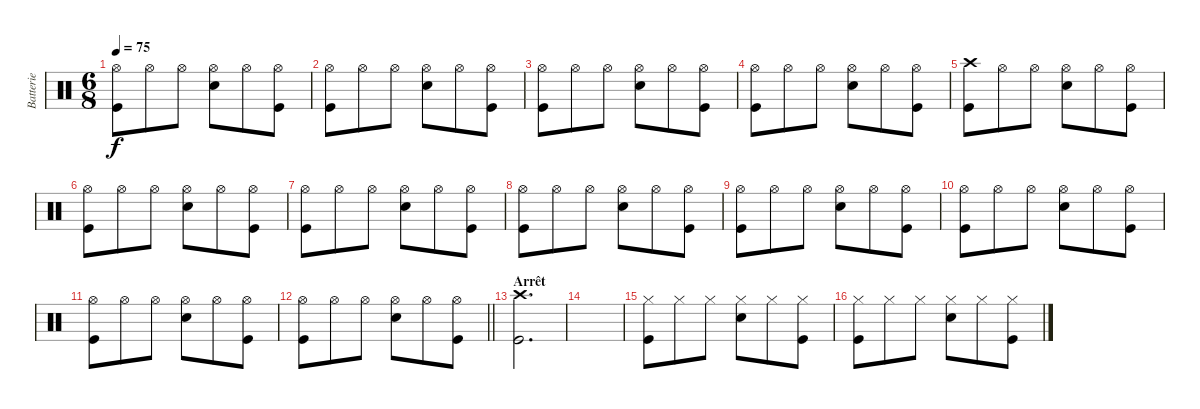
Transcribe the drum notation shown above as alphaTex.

\track ("Batterie" "Batterie") {instrument percussion}
\staff {score}
\articulation defaults
\ts (6 8)
\tempo 75
\clef neutral
\ks c
("Hi-Hat (open)" "Kick (hit)").8{dy f} "Hi-Hat (open)".8 "Hi-Hat (open)".8 ("Electric Snare (hit)" "Hi-Hat (open)").8 "Hi-Hat (open)".8 ("Kick (hit)" "Hi-Hat (open)").8 |
("Hi-Hat (open)" "Kick (hit)").8 "Hi-Hat (open)".8 "Hi-Hat (open)".8 ("Electric Snare (hit)" "Hi-Hat (open)").8 "Hi-Hat (open)".8 ("Kick (hit)" "Hi-Hat (open)").8 |
("Hi-Hat (open)" "Kick (hit)").8 "Hi-Hat (open)".8 "Hi-Hat (open)".8 ("Electric Snare (hit)" "Hi-Hat (open)").8 "Hi-Hat (open)".8 ("Kick (hit)" "Hi-Hat (open)").8 |
("Hi-Hat (open)" "Kick (hit)").8 "Hi-Hat (open)".8 "Hi-Hat (open)".8 ("Electric Snare (hit)" "Hi-Hat (open)").8 "Hi-Hat (open)".8 ("Kick (hit)" "Hi-Hat (open)").8 |
("Kick (hit)" "Crash high (hit)").8 "Hi-Hat (open)".8 "Hi-Hat (open)".8 ("Electric Snare (hit)" "Hi-Hat (open)").8 "Hi-Hat (open)".8 ("Kick (hit)" "Hi-Hat (open)").8 |
("Hi-Hat (open)" "Kick (hit)").8 "Hi-Hat (open)".8 "Hi-Hat (open)".8 ("Electric Snare (hit)" "Hi-Hat (open)").8 "Hi-Hat (open)".8 ("Kick (hit)" "Hi-Hat (open)").8 |
("Hi-Hat (open)" "Kick (hit)").8 "Hi-Hat (open)".8 "Hi-Hat (open)".8 ("Electric Snare (hit)" "Hi-Hat (open)").8 "Hi-Hat (open)".8 ("Kick (hit)" "Hi-Hat (open)").8 |
("Hi-Hat (open)" "Kick (hit)").8 "Hi-Hat (open)".8 "Hi-Hat (open)".8 ("Electric Snare (hit)" "Hi-Hat (open)").8 "Hi-Hat (open)".8 ("Kick (hit)" "Hi-Hat (open)").8 |
("Hi-Hat (open)" "Kick (hit)").8 "Hi-Hat (open)".8 "Hi-Hat (open)".8 ("Electric Snare (hit)" "Hi-Hat (open)").8 "Hi-Hat (open)".8 ("Kick (hit)" "Hi-Hat (open)").8 |
("Hi-Hat (open)" "Kick (hit)").8 "Hi-Hat (open)".8 "Hi-Hat (open)".8 ("Electric Snare (hit)" "Hi-Hat (open)").8 "Hi-Hat (open)".8 ("Kick (hit)" "Hi-Hat (open)").8 |
("Hi-Hat (open)" "Kick (hit)").8 "Hi-Hat (open)".8 "Hi-Hat (open)".8 ("Electric Snare (hit)" "Hi-Hat (open)").8 "Hi-Hat (open)".8 ("Kick (hit)" "Hi-Hat (open)").8 |
\barLineRight lightlight
("Hi-Hat (open)" "Kick (hit)").8 "Hi-Hat (open)".8 "Hi-Hat (open)".8 ("Electric Snare (hit)" "Hi-Hat (open)").8 "Hi-Hat (open)".8 ("Kick (hit)" "Hi-Hat (open)").8 |
\section ("" "Arrêt")
("Kick (hit)" "Crash high (hit)").2{d} |
|
("Hi-Hat (closed)" "Kick (hit)").8 "Hi-Hat (closed)".8 "Hi-Hat (closed)".8 ("Snare (hit) 2" "Hi-Hat (closed)").8 "Hi-Hat (closed)".8 ("Kick (hit)" "Hi-Hat (closed)").8 |
("Hi-Hat (closed)" "Kick (hit)").8 "Hi-Hat (closed)".8 "Hi-Hat (closed)".8 ("Snare (hit) 2" "Hi-Hat (closed)").8 "Hi-Hat (closed)".8 ("Kick (hit)" "Hi-Hat (closed)").8
